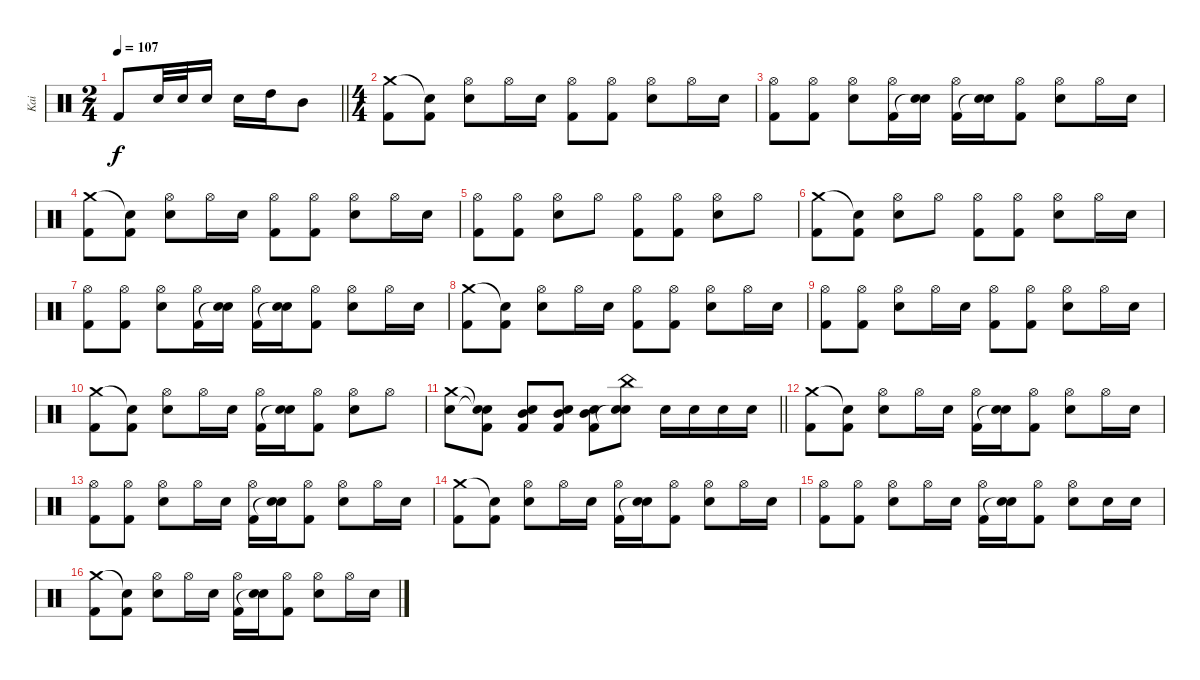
\track ("Kai" "Kai") {instrument percussion}
\staff {score}
\articulation defaults
\ts (2 4)
\tempo 107
\clef neutral
\barLineRight lightlight
\ks c "Kick (hit) 2".8{dy f} "Snare (hit) 2".32 "Snare (hit) 2".32 "Snare (hit) 2".16 "Snare (hit) 2".16 "High Tom (hit)".16 "Mid Tom (hit)".8
|
\ts (4 4)
("Crash medium (hit)" "Kick (hit) 2").8 ("Snare (hit)"{t} "Kick (hit) 2").8 ("Hi-Hat (open)" "Snare (hit) 2").8 "Hi-Hat (open)".16 "Snare (hit) 2".16 ("Hi-Hat (open)" "Kick (hit) 2").8 ("Hi-Hat (open)" "Kick (hit) 2").8 ("Hi-Hat (open)" "Snare (hit) 2").8 "Hi-Hat (open)".16 "Snare (hit) 2".16 |
("Hi-Hat (open)" "Kick (hit) 2").8 ("Hi-Hat (open)" "Kick (hit) 2").8 ("Hi-Hat (open)" "Snare (hit) 2").8 ("Hi-Hat (open)" "Kick (hit) 2").16 ("Snare (hit) 2" "Snare (hit)"{t}).16 ("Hi-Hat (open)" "Kick (hit) 2").16 ("Snare (hit) 2" "Snare (hit)"{t}).16 ("Hi-Hat (open)" "Kick (hit) 2").8 ("Hi-Hat (open)" "Snare (hit) 2").8 "Hi-Hat (open)".16 "Snare (hit) 2".16 |
("Crash medium (hit)" "Kick (hit) 2").8 ("Snare (hit)"{t} "Kick (hit) 2").8 ("Hi-Hat (open)" "Snare (hit) 2").8 "Hi-Hat (open)".16 "Snare (hit) 2".16 ("Hi-Hat (open)" "Kick (hit) 2").8 ("Hi-Hat (open)" "Kick (hit) 2").8 ("Hi-Hat (open)" "Snare (hit) 2").8 "Hi-Hat (open)".16 "Snare (hit) 2".16 |
("Hi-Hat (open)" "Kick (hit) 2").8 ("Hi-Hat (open)" "Kick (hit) 2").8 ("Hi-Hat (open)" "Snare (hit) 2").8 "Hi-Hat (open)".8 ("Hi-Hat (open)" "Kick (hit) 2").8 ("Hi-Hat (open)" "Kick (hit) 2").8 ("Hi-Hat (open)" "Snare (hit) 2").8 "Hi-Hat (open)".8 |
("Crash medium (hit)" "Kick (hit) 2").8 ("Snare (hit)"{t} "Kick (hit) 2").8 ("Hi-Hat (open)" "Snare (hit) 2").8 "Hi-Hat (open)".8 ("Hi-Hat (open)" "Kick (hit) 2").8 ("Hi-Hat (open)" "Kick (hit) 2").8 ("Hi-Hat (open)" "Snare (hit) 2").8 "Hi-Hat (open)".16 "Snare (hit) 2".16 |
("Hi-Hat (open)" "Kick (hit) 2").8 ("Hi-Hat (open)" "Kick (hit) 2").8 ("Hi-Hat (open)" "Snare (hit) 2").8 ("Hi-Hat (open)" "Kick (hit) 2").16 ("Snare (hit) 2" "Snare (hit)"{t}).16 ("Hi-Hat (open)" "Kick (hit) 2").16 ("Snare (hit) 2" "Snare (hit)"{t}).16 ("Hi-Hat (open)" "Kick (hit) 2").8 ("Hi-Hat (open)" "Snare (hit) 2").8 "Hi-Hat (open)".16 "Snare (hit) 2".16 |
("Crash medium (hit)" "Kick (hit) 2").8 ("Snare (hit)"{t} "Kick (hit) 2").8 ("Hi-Hat (open)" "Snare (hit) 2").8 "Hi-Hat (open)".16 "Snare (hit) 2".16 ("Hi-Hat (open)" "Kick (hit) 2").8 ("Hi-Hat (open)" "Kick (hit) 2").8 ("Hi-Hat (open)" "Snare (hit) 2").8 "Hi-Hat (open)".16 "Snare (hit) 2".16 |
("Hi-Hat (open)" "Kick (hit) 2").8 ("Hi-Hat (open)" "Kick (hit) 2").8 ("Hi-Hat (open)" "Snare (hit) 2").8 "Hi-Hat (open)".16 "Snare (hit) 2".16 ("Hi-Hat (open)" "Kick (hit) 2").8 ("Hi-Hat (open)" "Kick (hit) 2").8 ("Hi-Hat (open)" "Snare (hit) 2").8 "Hi-Hat (open)".16 "Snare (hit) 2".16 |
("Crash medium (hit)" "Kick (hit) 2").8 ("Snare (hit)"{t} "Kick (hit) 2").8 ("Hi-Hat (open)" "Snare (hit) 2").8 "Hi-Hat (open)".16 "Snare (hit) 2".16 ("Hi-Hat (open)" "Kick (hit) 2").16 ("Snare (hit) 2" "Snare (hit)"{t}).16 ("Hi-Hat (open)" "Kick (hit) 2").8 ("Hi-Hat (open)" "Snare (hit) 2").8 "Hi-Hat (open)".8 |
\barLineRight lightlight
("Crash medium (hit)" "Snare (hit) 2").8 ("Snare (hit)"{t} "Snare (hit)"{t} "Kick (hit) 2").8 ("Snare (hit) 2" "Mid Tom (hit)" "Kick (hit) 2").8 ("Snare (hit) 2" "Mid Tom (hit)" "Kick (hit) 2").8 ("Snare (hit) 2" "Mid Tom (hit)" "Kick (hit) 2").8 ("China (hit)" "Snare (hit) 2" "Snare (hit)"{t}).8 "Snare (hit) 2".16 "Snare (hit) 2".16 "Snare (hit) 2".16 "Snare (hit) 2".16 |
("Crash medium (hit)" "Kick (hit) 2").8 ("Snare (hit)"{t} "Kick (hit) 2").8 ("Hi-Hat (open)" "Snare (hit) 2").8 "Hi-Hat (open)".16 "Snare (hit) 2".16 ("Hi-Hat (open)" "Kick (hit) 2").16 ("Snare (hit) 2" "Snare (hit)"{t}).16 ("Hi-Hat (open)" "Kick (hit) 2").8 ("Hi-Hat (open)" "Snare (hit) 2").8 "Hi-Hat (open)".16 "Snare (hit) 2".16 |
("Hi-Hat (open)" "Kick (hit) 2").8 ("Hi-Hat (open)" "Kick (hit) 2").8 ("Hi-Hat (open)" "Snare (hit) 2").8 "Hi-Hat (open)".16 "Snare (hit) 2".16 ("Hi-Hat (open)" "Kick (hit) 2").16 ("Snare (hit) 2" "Snare (hit)"{t}).16 ("Hi-Hat (open)" "Kick (hit) 2").8 ("Hi-Hat (open)" "Snare (hit) 2").8 "Hi-Hat (open)".16 "Snare (hit) 2".16 |
("Crash medium (hit)" "Kick (hit) 2").8 ("Snare (hit)"{t} "Kick (hit) 2").8 ("Hi-Hat (open)" "Snare (hit) 2").8 "Hi-Hat (open)".16 "Snare (hit) 2".16 ("Hi-Hat (open)" "Kick (hit) 2").16 ("Snare (hit) 2" "Snare (hit)"{t}).16 ("Hi-Hat (open)" "Kick (hit) 2").8 ("Hi-Hat (open)" "Snare (hit) 2").8 "Hi-Hat (open)".16 "Snare (hit) 2".16 |
("Hi-Hat (open)" "Kick (hit) 2").8 ("Hi-Hat (open)" "Kick (hit) 2").8 ("Hi-Hat (open)" "Snare (hit) 2").8 "Hi-Hat (open)".16 "Snare (hit) 2".16 ("Hi-Hat (open)" "Kick (hit) 2").16 ("Snare (hit) 2" "Snare (hit)"{t}).16 ("Hi-Hat (open)" "Kick (hit) 2").8 ("Hi-Hat (open)" "Snare (hit) 2").8 "Snare (hit) 2".16 "Snare (hit) 2".16 |
("Crash medium (hit)" "Kick (hit) 2").8 ("Snare (hit)"{t} "Kick (hit) 2").8 ("Hi-Hat (open)" "Snare (hit) 2").8 "Hi-Hat (open)".16 "Snare (hit) 2".16 ("Hi-Hat (open)" "Kick (hit) 2").16 ("Snare (hit) 2" "Snare (hit)"{t}).16 ("Hi-Hat (open)" "Kick (hit) 2").8 ("Hi-Hat (open)" "Snare (hit) 2").8 "Hi-Hat (open)".16 "Snare (hit) 2".16
